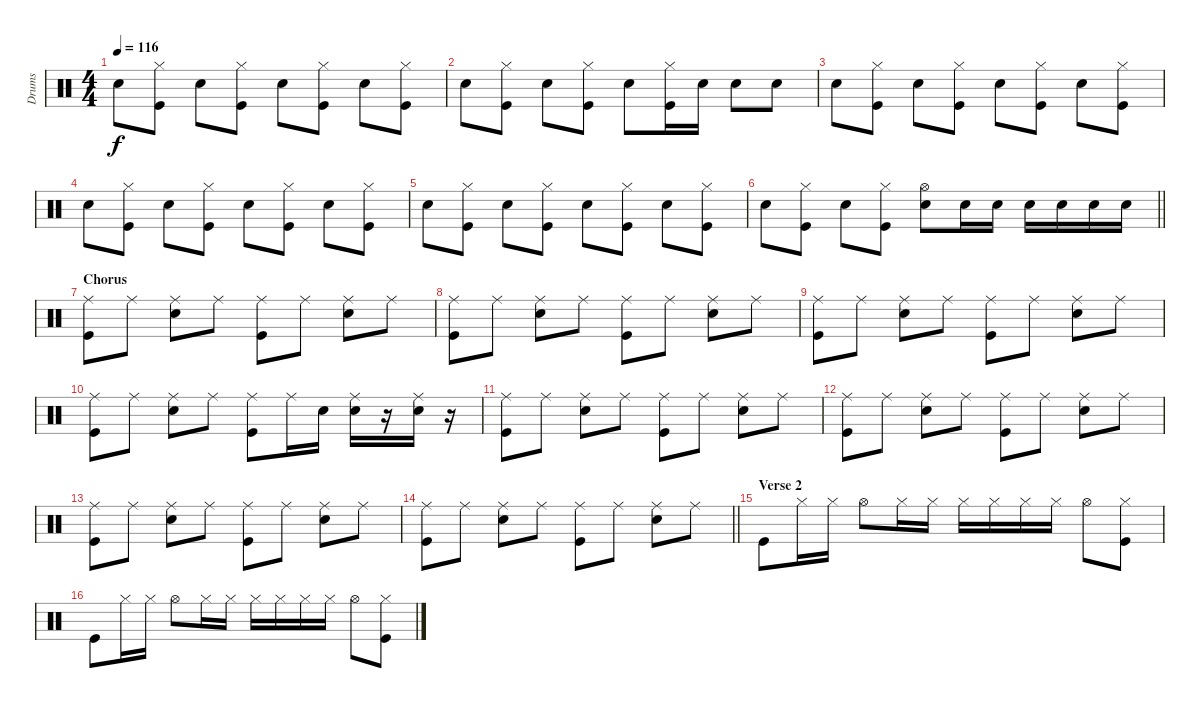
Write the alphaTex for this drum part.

\track ("Drums" "Drums") {instrument percussion}
\staff {score}
\articulation defaults
\ts (4 4)
\tempo 116
\clef neutral
\ks c "Snare (hit) 2".8{dy f}
("Hi-Hat (closed)" "Kick (hit)").8 "Snare (hit) 2".8 ("Hi-Hat (closed)" "Kick (hit)").8 "Snare (hit) 2".8 ("Hi-Hat (closed)" "Kick (hit)").8 "Snare (hit) 2".8 ("Hi-Hat (closed)" "Kick (hit)").8 |
"Snare (hit) 2".8 ("Hi-Hat (closed)" "Kick (hit)").8 "Snare (hit) 2".8 ("Hi-Hat (closed)" "Kick (hit)").8 "Snare (hit) 2".8 ("Hi-Hat (closed)" "Kick (hit)").16 "Snare (hit) 2".16 "Snare (hit) 2".8 "Snare (hit) 2".8 |
"Snare (hit) 2".8 ("Hi-Hat (closed)" "Kick (hit)").8 "Snare (hit) 2".8 ("Hi-Hat (closed)" "Kick (hit)").8 "Snare (hit) 2".8 ("Hi-Hat (closed)" "Kick (hit)").8 "Snare (hit) 2".8 ("Hi-Hat (closed)" "Kick (hit)").8 |
"Snare (hit) 2".8 ("Hi-Hat (closed)" "Kick (hit)").8 "Snare (hit) 2".8 ("Hi-Hat (closed)" "Kick (hit)").8 "Snare (hit) 2".8 ("Hi-Hat (closed)" "Kick (hit)").8 "Snare (hit) 2".8 ("Hi-Hat (closed)" "Kick (hit)").8 |
"Snare (hit) 2".8 ("Hi-Hat (closed)" "Kick (hit)").8 "Snare (hit) 2".8 ("Hi-Hat (closed)" "Kick (hit)").8 "Snare (hit) 2".8 ("Hi-Hat (closed)" "Kick (hit)").8 "Snare (hit) 2".8 ("Hi-Hat (closed)" "Kick (hit)").8 |
\barLineRight lightlight "Snare (hit) 2".8
("Hi-Hat (closed)" "Kick (hit)").8 "Snare (hit) 2".8 ("Hi-Hat (closed)" "Kick (hit)").8 ("Hi-Hat (open)" "Snare (hit) 2").8 "Snare (hit) 2".16 "Snare (hit) 2".16 "Snare (hit) 2".16 "Snare (hit) 2".16 "Snare (hit) 2".16 "Snare (hit) 2".16 |
\section ("" "Chorus")
("Ride (middle)" "Kick (hit)").8 "Ride (middle)".8 ("Ride (middle)" "Snare (hit) 2").8 "Ride (middle)".8 ("Ride (middle)" "Kick (hit)").8 "Ride (middle)".8 ("Ride (middle)" "Snare (hit) 2").8 "Ride (middle)".8 |
("Ride (middle)" "Kick (hit)").8 "Ride (middle)".8 ("Ride (middle)" "Snare (hit) 2").8 "Ride (middle)".8 ("Ride (middle)" "Kick (hit)").8 "Ride (middle)".8 ("Ride (middle)" "Snare (hit) 2").8 "Ride (middle)".8 |
("Ride (middle)" "Kick (hit)").8 "Ride (middle)".8 ("Ride (middle)" "Snare (hit) 2").8 "Ride (middle)".8 ("Ride (middle)" "Kick (hit)").8 "Ride (middle)".8 ("Ride (middle)" "Snare (hit) 2").8 "Ride (middle)".8 |
("Ride (middle)" "Kick (hit)").8 "Ride (middle)".8 ("Ride (middle)" "Snare (hit) 2").8 "Ride (middle)".8 ("Ride (middle)" "Kick (hit)").8 "Ride (middle)".16 "Snare (hit) 2".16 ("Ride (middle)" "Snare (hit) 2").16 r.16 ("Ride (middle)" "Snare (hit) 2").16 r.16 |
("Ride (middle)" "Kick (hit)").8 "Ride (middle)".8 ("Ride (middle)" "Snare (hit) 2").8 "Ride (middle)".8 ("Ride (middle)" "Kick (hit)").8 "Ride (middle)".8 ("Ride (middle)" "Snare (hit) 2").8 "Ride (middle)".8 |
("Ride (middle)" "Kick (hit)").8 "Ride (middle)".8 ("Ride (middle)" "Snare (hit) 2").8 "Ride (middle)".8 ("Ride (middle)" "Kick (hit)").8 "Ride (middle)".8 ("Ride (middle)" "Snare (hit) 2").8 "Ride (middle)".8 |
("Ride (middle)" "Kick (hit)").8 "Ride (middle)".8 ("Ride (middle)" "Snare (hit) 2").8 "Ride (middle)".8 ("Ride (middle)" "Kick (hit)").8 "Ride (middle)".8 ("Ride (middle)" "Snare (hit) 2").8 "Ride (middle)".8 |
\barLineRight lightlight
("Ride (middle)" "Kick (hit)").8 "Ride (middle)".8 ("Ride (middle)" "Snare (hit) 2").8 "Ride (middle)".8 ("Ride (middle)" "Kick (hit)").8 "Ride (middle)".8 ("Ride (middle)" "Snare (hit) 2").8 "Ride (middle)".8 |
\section ("" "Verse 2")
"Kick (hit)".8 "Hi-Hat (closed)".16 "Hi-Hat (closed)".16 "Hi-Hat (open)".8 "Hi-Hat (closed)".16 "Hi-Hat (closed)".16 "Hi-Hat (closed)".16 "Hi-Hat (closed)".16 "Hi-Hat (closed)".16 "Hi-Hat (closed)".16 "Hi-Hat (open)".8 ("Hi-Hat (closed)" "Kick (hit)").8 |
"Kick (hit)".8 "Hi-Hat (closed)".16 "Hi-Hat (closed)".16 "Hi-Hat (open)".8 "Hi-Hat (closed)".16 "Hi-Hat (closed)".16 "Hi-Hat (closed)".16 "Hi-Hat (closed)".16 "Hi-Hat (closed)".16 "Hi-Hat (closed)".16 "Hi-Hat (open)".8 ("Hi-Hat (closed)" "Kick (hit)").8
